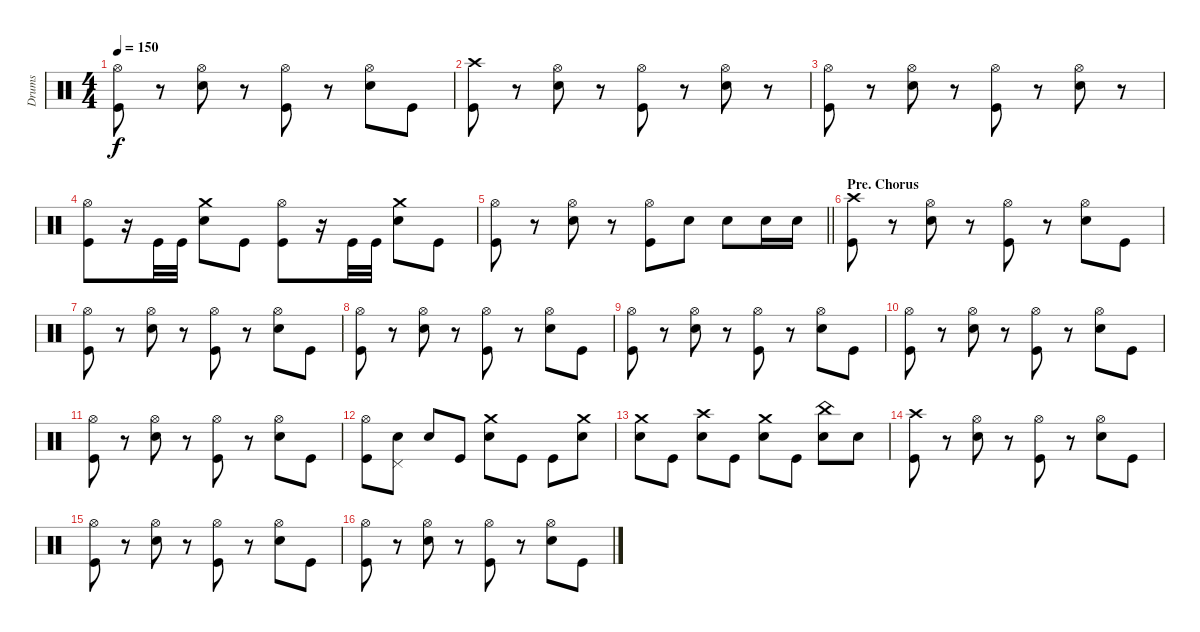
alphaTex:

\track ("Drums" "Drums") {instrument percussion}
\staff {score}
\articulation defaults
\ts (4 4)
\tempo 150
\clef neutral
\ks c
("Hi-Hat (open)" "Kick (hit)").8{dy f} r.8 ("Hi-Hat (open)" "Electric Snare (hit)").8 r.8 ("Hi-Hat (open)" "Kick (hit)").8 r.8 ("Hi-Hat (open)" "Electric Snare (hit)").8 "Kick (hit)".8 |
("Crash high (hit)" "Kick (hit)").8 r.8 ("Hi-Hat (open)" "Electric Snare (hit)").8 r.8 ("Hi-Hat (open)" "Kick (hit)").8 r.8 ("Hi-Hat (open)" "Electric Snare (hit)").8 r.8 |
("Hi-Hat (open)" "Kick (hit)").8 r.8 ("Hi-Hat (open)" "Electric Snare (hit)").8 r.8 ("Hi-Hat (open)" "Kick (hit)").8 r.8 ("Hi-Hat (open)" "Electric Snare (hit)").8 r.8 |
("Hi-Hat (open)" "Kick (hit)").8 r.16 "Kick (hit)".32 "Kick (hit)".32 ("Crash medium (hit)" "Electric Snare (hit)").8 "Kick (hit)".8 ("Hi-Hat (open)" "Kick (hit)").8 r.16 "Kick (hit)".32 "Kick (hit)".32 ("Crash medium (hit)" "Electric Snare (hit)").8 "Kick (hit)".8 |
\barLineRight lightlight
("Hi-Hat (open)" "Kick (hit)").8 r.8 ("Hi-Hat (open)" "Electric Snare (hit)").8 r.8 ("Hi-Hat (open)" "Kick (hit)").8 "Electric Snare (hit)".8 "Electric Snare (hit)".8 "Electric Snare (hit)".16 "Electric Snare (hit)".16 |
\section ("" "Pre. Chorus")
("Crash high (hit)" "Kick (hit)").8 r.8 ("Hi-Hat (open)" "Electric Snare (hit)").8 r.8 ("Hi-Hat (open)" "Kick (hit)").8 r.8 ("Hi-Hat (open)" "Electric Snare (hit)").8 "Kick (hit)".8 |
("Hi-Hat (open)" "Kick (hit)").8 r.8 ("Hi-Hat (open)" "Electric Snare (hit)").8 r.8 ("Hi-Hat (open)" "Kick (hit)").8 r.8 ("Hi-Hat (open)" "Electric Snare (hit)").8 "Kick (hit)".8 |
("Hi-Hat (open)" "Kick (hit)").8 r.8 ("Hi-Hat (open)" "Electric Snare (hit)").8 r.8 ("Hi-Hat (open)" "Kick (hit)").8 r.8 ("Hi-Hat (open)" "Electric Snare (hit)").8 "Kick (hit)".8 |
("Hi-Hat (open)" "Kick (hit)").8 r.8 ("Hi-Hat (open)" "Electric Snare (hit)").8 r.8 ("Hi-Hat (open)" "Kick (hit)").8 r.8 ("Hi-Hat (open)" "Electric Snare (hit)").8 "Kick (hit)".8 |
("Hi-Hat (open)" "Kick (hit)").8 r.8 ("Hi-Hat (open)" "Electric Snare (hit)").8 r.8 ("Hi-Hat (open)" "Kick (hit)").8 r.8 ("Hi-Hat (open)" "Electric Snare (hit)").8 "Kick (hit)".8 |
("Hi-Hat (open)" "Kick (hit)").8 r.8 ("Hi-Hat (open)" "Electric Snare (hit)").8 r.8 ("Hi-Hat (open)" "Kick (hit)").8 r.8 ("Hi-Hat (open)" "Electric Snare (hit)").8 "Kick (hit)".8 |
("Hi-Hat (open)" "Kick (hit)").8 ("Pedal Hi-Hat (hit)" "Electric Snare (hit)").8 "Electric Snare (hit)".8 "Kick (hit)".8 ("Crash medium (hit)" "Electric Snare (hit)").8 "Kick (hit)".8 "Kick (hit)".8 ("Crash medium (hit)" "Electric Snare (hit)").8 |
("Crash medium (hit)" "Electric Snare (hit)").8 "Kick (hit)".8 ("Crash high (hit)" "Electric Snare (hit)").8 "Kick (hit)".8 ("Crash medium (hit)" "Electric Snare (hit)").8 "Kick (hit)".8 ("China (hit)" "Electric Snare (hit)").8 "Electric Snare (hit)".8 |
("Crash high (hit)" "Kick (hit)").8 r.8 ("Hi-Hat (open)" "Electric Snare (hit)").8 r.8 ("Hi-Hat (open)" "Kick (hit)").8 r.8 ("Hi-Hat (open)" "Electric Snare (hit)").8 "Kick (hit)".8 |
("Hi-Hat (open)" "Kick (hit)").8 r.8 ("Hi-Hat (open)" "Electric Snare (hit)").8 r.8 ("Hi-Hat (open)" "Kick (hit)").8 r.8 ("Hi-Hat (open)" "Electric Snare (hit)").8 "Kick (hit)".8 |
("Hi-Hat (open)" "Kick (hit)").8 r.8 ("Hi-Hat (open)" "Electric Snare (hit)").8 r.8 ("Hi-Hat (open)" "Kick (hit)").8 r.8 ("Hi-Hat (open)" "Electric Snare (hit)").8 "Kick (hit)".8
